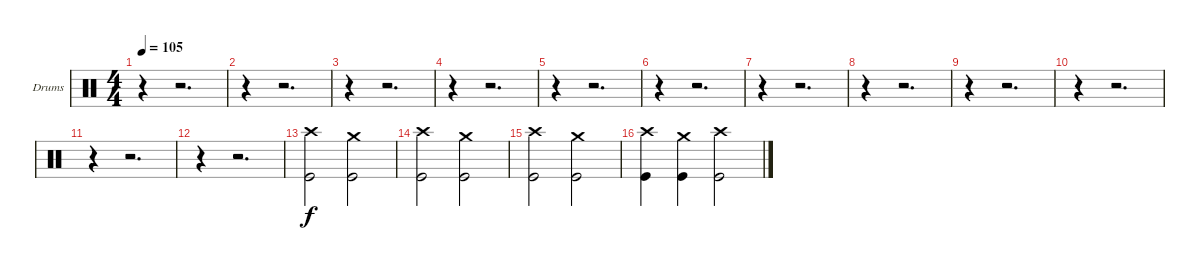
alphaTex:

\bracketExtendMode groupsimilarinstruments
\firstSystemTrackNameOrientation horizontal
\otherSystemsTrackNameOrientation horizontal
\track ("Drumkit (Christoph)" "Drums") {instrument percussion}
\staff {score}
\articulation defaults
\ts (4 4)
\tempo 105
\clef neutral
\ks c
r.4{dy f} r.2{d} |
r.4 r.2{d} |
r.4 r.2{d} |
r.4 r.2{d} |
r.4 r.2{d} |
r.4 r.2{d} |
r.4 r.2{d} |
r.4 r.2{d} |
r.4 r.2{d} |
r.4 r.2{d} |
r.4 r.2{d} |
r.4 r.2{d} |
("Crash high (hit)" "Kick (hit)").2 ("Crash medium (hit)" "Kick (hit)").2 |
("Crash high (hit)" "Kick (hit)").2 ("Crash medium (hit)" "Kick (hit)").2 |
("Crash high (hit)" "Kick (hit)").2 ("Crash medium (hit)" "Kick (hit)").2 |
("Crash high (hit)" "Kick (hit)").4 ("Crash medium (hit)" "Kick (hit)").4 ("Crash high (hit)" "Kick (hit)").2
